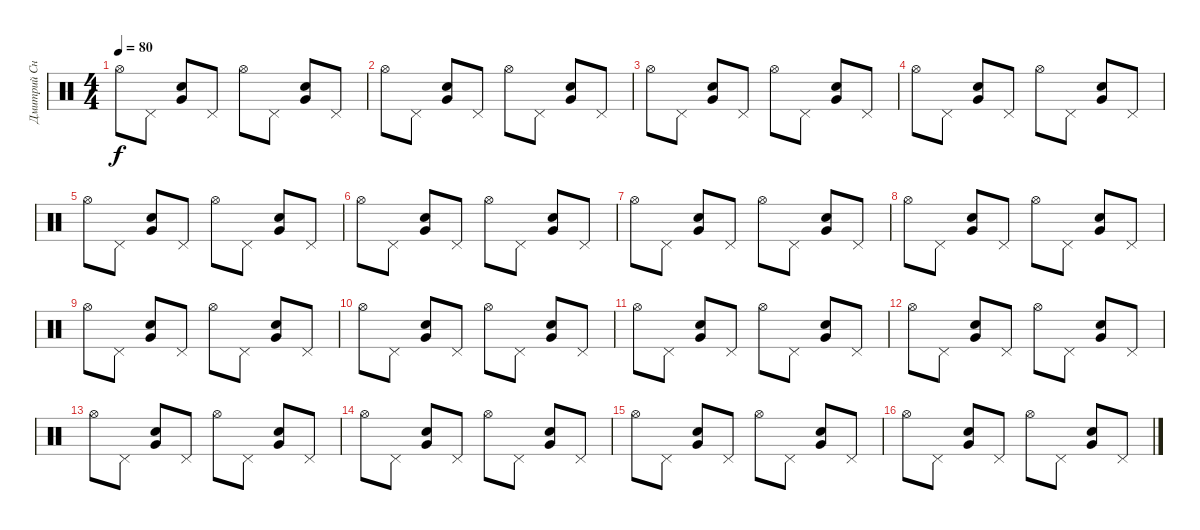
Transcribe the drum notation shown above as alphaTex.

\track ("Дмитрий Снэйк" "Дмитрий Сн") {instrument percussion}
\staff {score}
\articulation defaults
\ts (4 4)
\tempo 80
\clef neutral
\ks c "Hi-Hat (open)".8{dy f} "Pedal Hi-Hat (hit)".8
("Snare (hit) 2" "Very Low Tom (hit)").8 "Pedal Hi-Hat (hit)".8 "Hi-Hat (open)".8 "Pedal Hi-Hat (hit)".8 ("Snare (hit) 2" "Very Low Tom (hit)").8 "Pedal Hi-Hat (hit)".8 |
"Hi-Hat (open)".8 "Pedal Hi-Hat (hit)".8 ("Snare (hit) 2" "Very Low Tom (hit)").8 "Pedal Hi-Hat (hit)".8 "Hi-Hat (open)".8 "Pedal Hi-Hat (hit)".8 ("Snare (hit) 2" "Very Low Tom (hit)").8 "Pedal Hi-Hat (hit)".8 |
"Hi-Hat (open)".8 "Pedal Hi-Hat (hit)".8 ("Snare (hit) 2" "Very Low Tom (hit)").8 "Pedal Hi-Hat (hit)".8 "Hi-Hat (open)".8 "Pedal Hi-Hat (hit)".8 ("Snare (hit) 2" "Very Low Tom (hit)").8 "Pedal Hi-Hat (hit)".8 |
"Hi-Hat (open)".8 "Pedal Hi-Hat (hit)".8 ("Snare (hit) 2" "Very Low Tom (hit)").8 "Pedal Hi-Hat (hit)".8 "Hi-Hat (open)".8 "Pedal Hi-Hat (hit)".8 ("Snare (hit) 2" "Very Low Tom (hit)").8 "Pedal Hi-Hat (hit)".8 |
"Hi-Hat (open)".8 "Pedal Hi-Hat (hit)".8 ("Snare (hit) 2" "Very Low Tom (hit)").8 "Pedal Hi-Hat (hit)".8 "Hi-Hat (open)".8 "Pedal Hi-Hat (hit)".8 ("Snare (hit) 2" "Very Low Tom (hit)").8 "Pedal Hi-Hat (hit)".8 |
"Hi-Hat (open)".8 "Pedal Hi-Hat (hit)".8 ("Snare (hit) 2" "Very Low Tom (hit)").8 "Pedal Hi-Hat (hit)".8 "Hi-Hat (open)".8 "Pedal Hi-Hat (hit)".8 ("Snare (hit) 2" "Very Low Tom (hit)").8 "Pedal Hi-Hat (hit)".8 |
"Hi-Hat (open)".8 "Pedal Hi-Hat (hit)".8 ("Snare (hit) 2" "Very Low Tom (hit)").8 "Pedal Hi-Hat (hit)".8 "Hi-Hat (open)".8 "Pedal Hi-Hat (hit)".8 ("Snare (hit) 2" "Very Low Tom (hit)").8 "Pedal Hi-Hat (hit)".8 |
"Hi-Hat (open)".8 "Pedal Hi-Hat (hit)".8 ("Snare (hit) 2" "Very Low Tom (hit)").8 "Pedal Hi-Hat (hit)".8 "Hi-Hat (open)".8 "Pedal Hi-Hat (hit)".8 ("Snare (hit) 2" "Very Low Tom (hit)").8 "Pedal Hi-Hat (hit)".8 |
"Hi-Hat (open)".8 "Pedal Hi-Hat (hit)".8 ("Snare (hit) 2" "Very Low Tom (hit)").8 "Pedal Hi-Hat (hit)".8 "Hi-Hat (open)".8 "Pedal Hi-Hat (hit)".8 ("Snare (hit) 2" "Very Low Tom (hit)").8 "Pedal Hi-Hat (hit)".8 |
"Hi-Hat (open)".8 "Pedal Hi-Hat (hit)".8 ("Snare (hit) 2" "Very Low Tom (hit)").8 "Pedal Hi-Hat (hit)".8 "Hi-Hat (open)".8 "Pedal Hi-Hat (hit)".8 ("Snare (hit) 2" "Very Low Tom (hit)").8 "Pedal Hi-Hat (hit)".8 |
"Hi-Hat (open)".8 "Pedal Hi-Hat (hit)".8 ("Snare (hit) 2" "Very Low Tom (hit)").8 "Pedal Hi-Hat (hit)".8 "Hi-Hat (open)".8 "Pedal Hi-Hat (hit)".8 ("Snare (hit) 2" "Very Low Tom (hit)").8 "Pedal Hi-Hat (hit)".8 |
"Hi-Hat (open)".8 "Pedal Hi-Hat (hit)".8 ("Snare (hit) 2" "Very Low Tom (hit)").8 "Pedal Hi-Hat (hit)".8 "Hi-Hat (open)".8 "Pedal Hi-Hat (hit)".8 ("Snare (hit) 2" "Very Low Tom (hit)").8 "Pedal Hi-Hat (hit)".8 |
"Hi-Hat (open)".8 "Pedal Hi-Hat (hit)".8 ("Snare (hit) 2" "Very Low Tom (hit)").8 "Pedal Hi-Hat (hit)".8 "Hi-Hat (open)".8 "Pedal Hi-Hat (hit)".8 ("Snare (hit) 2" "Very Low Tom (hit)").8 "Pedal Hi-Hat (hit)".8 |
"Hi-Hat (open)".8 "Pedal Hi-Hat (hit)".8 ("Snare (hit) 2" "Very Low Tom (hit)").8 "Pedal Hi-Hat (hit)".8 "Hi-Hat (open)".8 "Pedal Hi-Hat (hit)".8 ("Snare (hit) 2" "Very Low Tom (hit)").8 "Pedal Hi-Hat (hit)".8 |
"Hi-Hat (open)".8 "Pedal Hi-Hat (hit)".8 ("Snare (hit) 2" "Very Low Tom (hit)").8 "Pedal Hi-Hat (hit)".8 "Hi-Hat (open)".8 "Pedal Hi-Hat (hit)".8 ("Snare (hit) 2" "Very Low Tom (hit)").8 "Pedal Hi-Hat (hit)".8 |
"Hi-Hat (open)".8 "Pedal Hi-Hat (hit)".8 ("Snare (hit) 2" "Very Low Tom (hit)").8 "Pedal Hi-Hat (hit)".8 "Hi-Hat (open)".8 "Pedal Hi-Hat (hit)".8 ("Snare (hit) 2" "Very Low Tom (hit)").8 "Pedal Hi-Hat (hit)".8
